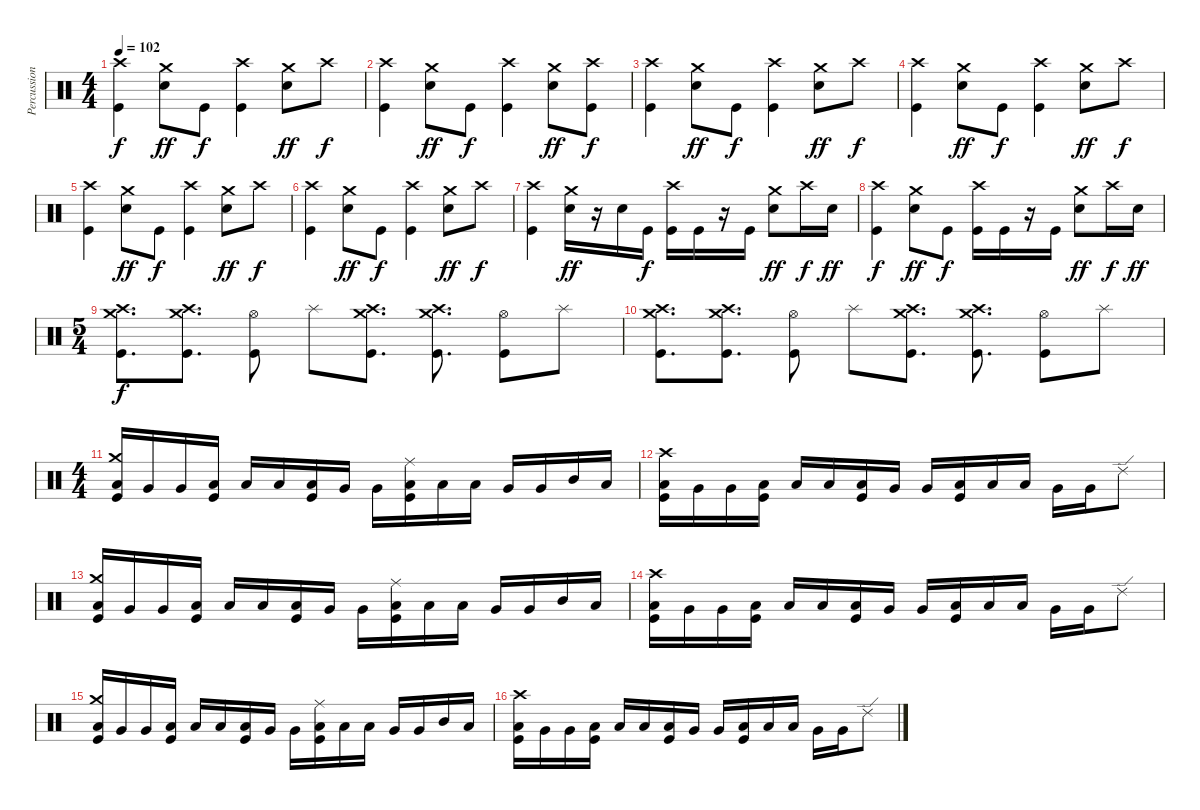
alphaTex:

\track ("Percussion" "Percussion") {instrument percussion}
\staff {score}
\articulation defaults
\ts (4 4)
\tempo 102
\clef neutral
\ks c
("Crash high (hit)" "Kick (hit)").4{dy f volume 12} ("Crash medium (hit)" "Snare (hit) 2").8{dy ff} "Kick (hit)".8{dy f} ("Crash high (hit)" "Kick (hit)").4 ("Crash medium (hit)" "Snare (hit) 2").8{dy ff} "Crash high (hit)".8{dy f} |
("Crash high (hit)" "Kick (hit)").4 ("Crash medium (hit)" "Snare (hit) 2").8{dy ff} "Kick (hit)".8{dy f} ("Crash high (hit)" "Kick (hit)").4 ("Crash medium (hit)" "Snare (hit) 2").8{dy ff} ("Crash high (hit)" "Kick (hit)").8{dy f} |
("Crash high (hit)" "Kick (hit)").4 ("Crash medium (hit)" "Snare (hit) 2").8{dy ff} "Kick (hit)".8{dy f} ("Crash high (hit)" "Kick (hit)").4 ("Crash medium (hit)" "Snare (hit) 2").8{dy ff} "Crash high (hit)".8{dy f} |
("Crash high (hit)" "Kick (hit)").4 ("Crash medium (hit)" "Snare (hit) 2").8{dy ff} "Kick (hit)".8{dy f} ("Crash high (hit)" "Kick (hit)").4 ("Crash medium (hit)" "Snare (hit) 2").8{dy ff} "Crash high (hit)".8{dy f} |
("Crash high (hit)" "Kick (hit)").4 ("Crash medium (hit)" "Snare (hit) 2").8{dy ff} "Kick (hit)".8{dy f} ("Crash high (hit)" "Kick (hit)").4 ("Crash medium (hit)" "Snare (hit) 2").8{dy ff} "Crash high (hit)".8{dy f} |
("Crash high (hit)" "Kick (hit)").4 ("Crash medium (hit)" "Snare (hit) 2").8{dy ff} "Kick (hit)".8{dy f} ("Crash high (hit)" "Kick (hit)").4 ("Crash medium (hit)" "Snare (hit) 2").8{dy ff} "Crash high (hit)".8{dy f} |
("Crash high (hit)" "Kick (hit)").4 ("Crash medium (hit)" "Snare (hit) 2").16{dy ff} r.16 "Snare (hit) 2".16 "Kick (hit)".16{dy f} ("Crash high (hit)" "Kick (hit)").16 "Kick (hit)".16 r.16 "Kick (hit)".16 ("Crash medium (hit)" "Snare (hit) 2").8{dy ff} "Crash high (hit)".16{dy f} "Snare (hit) 2".16{dy ff} |
("Crash high (hit)" "Kick (hit)").4{dy f} ("Crash medium (hit)" "Snare (hit) 2").8{dy ff} "Kick (hit)".8{dy f} ("Crash high (hit)" "Kick (hit)").16 "Kick (hit)".16 r.16 "Kick (hit)".16 ("Crash medium (hit)" "Snare (hit) 2").8{dy ff} "Crash high (hit)".16{dy f} "Snare (hit) 2".16{dy ff} |
\ts (5 4)
("Crash medium (hit)" "Crash high (hit)" "Kick (hit)").8{d dy f} ("Crash medium (hit)" "Crash high (hit)" "Kick (hit)").8{d} ("Hi-Hat (open)" "Kick (hit)").8 "Splash (hit)".8 ("Crash medium (hit)" "Crash high (hit)" "Kick (hit)").8{d} ("Crash medium (hit)" "Crash high (hit)" "Kick (hit)").8{d} ("Hi-Hat (open)" "Kick (hit)").8 "Splash (hit)".8 |
("Crash medium (hit)" "Crash high (hit)" "Kick (hit)").8{d} ("Crash medium (hit)" "Crash high (hit)" "Kick (hit)").8{d} ("Hi-Hat (open)" "Kick (hit)").8 "Splash (hit)".8 ("Crash medium (hit)" "Crash high (hit)" "Kick (hit)").8{d} ("Crash medium (hit)" "Crash high (hit)" "Kick (hit)").8{d} ("Hi-Hat (open)" "Kick (hit)").8 "Splash (hit)".8 |
\ts (4 4)
("Crash medium (hit)" "Low Tom (hit)" "Kick (hit)").16{volume 9} "Very Low Tom (hit)".16 "Very Low Tom (hit)".16 ("Low Tom (hit)" "Kick (hit)").16 "Low Floor Tom (hit)".16 "Low Floor Tom (hit)".16 ("Low Tom (hit)" "Kick (hit)").16 "Very Low Tom (hit)".16 "Very Low Tom (hit)".16 ("Ride (middle)" "Low Tom (hit)" "Kick (hit)").16 "Low Floor Tom (hit)".16 "Low Floor Tom (hit)".16 "Very Low Tom (hit)".16 "Very Low Tom (hit)".16 "Mid Tom (hit)".16 "Low Tom (hit)".16 |
("Crash high (hit)" "Low Tom (hit)" "Kick (hit)").16 "Very Low Tom (hit)".16 "Very Low Tom (hit)".16 ("Low Tom (hit)" "Kick (hit)").16 "Low Floor Tom (hit)".16 "Low Floor Tom (hit)".16 ("Low Tom (hit)" "Kick (hit)").16 "Very Low Tom (hit)".16 "Very Low Tom (hit)".16 ("Low Tom (hit)" "Kick (hit)").16 "Low Floor Tom (hit)".16 "Low Floor Tom (hit)".16 "Very Low Tom (hit)".16 "Very Low Tom (hit)".16 "Ride (edge) 2".8 |
("Crash medium (hit)" "Low Tom (hit)" "Kick (hit)").16 "Very Low Tom (hit)".16 "Very Low Tom (hit)".16 ("Low Tom (hit)" "Kick (hit)").16 "Low Floor Tom (hit)".16 "Low Floor Tom (hit)".16 ("Low Tom (hit)" "Kick (hit)").16 "Very Low Tom (hit)".16 "Very Low Tom (hit)".16 ("Ride (middle)" "Low Tom (hit)" "Kick (hit)").16 "Low Floor Tom (hit)".16 "Low Floor Tom (hit)".16 "Very Low Tom (hit)".16 "Very Low Tom (hit)".16 "Mid Tom (hit)".16 "Low Tom (hit)".16 |
("Crash high (hit)" "Low Tom (hit)" "Kick (hit)").16 "Very Low Tom (hit)".16 "Very Low Tom (hit)".16 ("Low Tom (hit)" "Kick (hit)").16 "Low Floor Tom (hit)".16 "Low Floor Tom (hit)".16 ("Low Tom (hit)" "Kick (hit)").16 "Very Low Tom (hit)".16 "Very Low Tom (hit)".16 ("Low Tom (hit)" "Kick (hit)").16 "Low Floor Tom (hit)".16 "Low Floor Tom (hit)".16 "Very Low Tom (hit)".16 "Very Low Tom (hit)".16 "Ride (edge) 2".8 |
("Crash medium (hit)" "Low Tom (hit)" "Kick (hit)").16 "Very Low Tom (hit)".16 "Very Low Tom (hit)".16 ("Low Tom (hit)" "Kick (hit)").16 "Low Floor Tom (hit)".16 "Low Floor Tom (hit)".16 ("Low Tom (hit)" "Kick (hit)").16 "Very Low Tom (hit)".16 "Very Low Tom (hit)".16 ("Ride (middle)" "Low Tom (hit)" "Kick (hit)").16 "Low Floor Tom (hit)".16 "Low Floor Tom (hit)".16 "Very Low Tom (hit)".16 "Very Low Tom (hit)".16 "Mid Tom (hit)".16 "Low Tom (hit)".16 |
("Crash high (hit)" "Low Tom (hit)" "Kick (hit)").16 "Very Low Tom (hit)".16 "Very Low Tom (hit)".16 ("Low Tom (hit)" "Kick (hit)").16 "Low Floor Tom (hit)".16 "Low Floor Tom (hit)".16 ("Low Tom (hit)" "Kick (hit)").16 "Very Low Tom (hit)".16 "Very Low Tom (hit)".16 ("Low Tom (hit)" "Kick (hit)").16 "Low Floor Tom (hit)".16 "Low Floor Tom (hit)".16 "Very Low Tom (hit)".16 "Very Low Tom (hit)".16 "Ride (edge) 2".8
